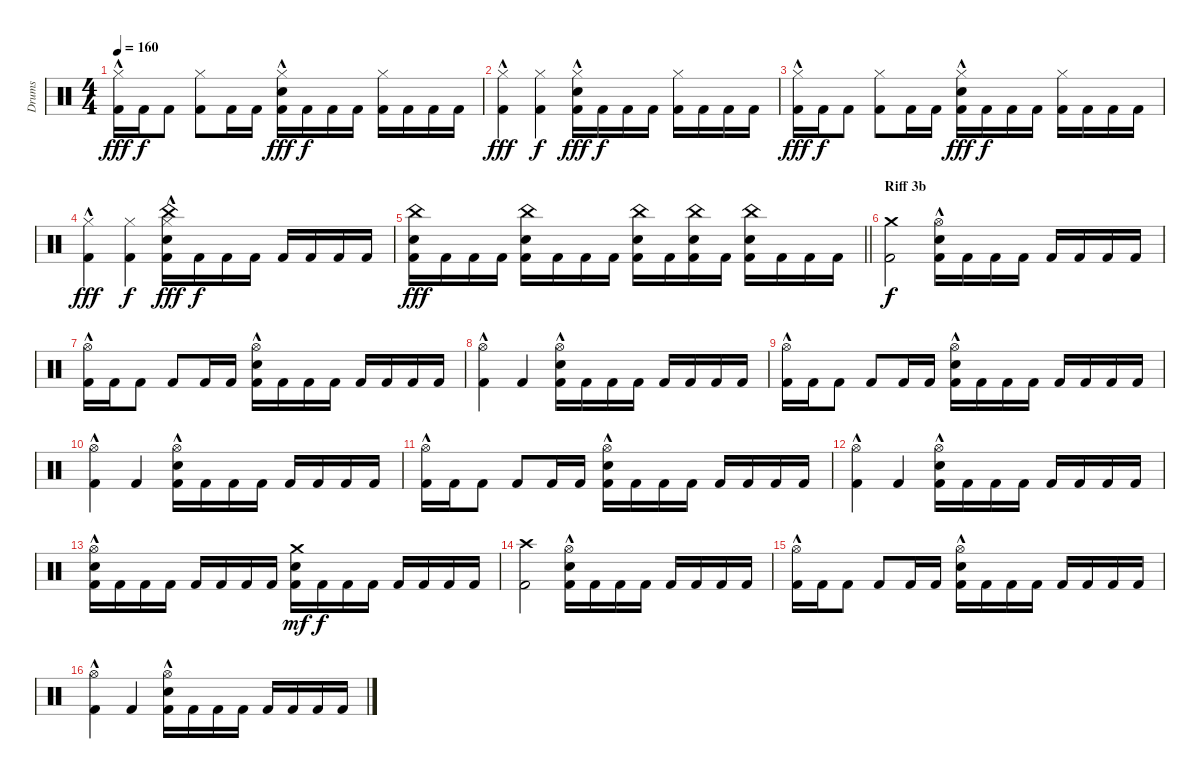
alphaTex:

\track ("Drums" "Drums") {instrument percussion}
\staff {score}
\articulation defaults
\ts (4 4)
\tempo 160
\clef neutral
\ks c
("Hi-Hat (closed)"{hac} "Kick (hit) 2").16{dy fff} "Kick (hit) 2".16{dy f} "Kick (hit) 2".8 ("Hi-Hat (closed)" "Kick (hit) 2").8 "Kick (hit) 2".16 "Kick (hit) 2".16 ("Hi-Hat (closed)"{hac} "Snare (hit) 2" "Kick (hit) 2").16{dy fff} "Kick (hit) 2".16{dy f} "Kick (hit) 2".16 "Kick (hit) 2".16 ("Hi-Hat (closed)" "Kick (hit) 2").16 "Kick (hit) 2".16 "Kick (hit) 2".16 "Kick (hit) 2".16 |
("Hi-Hat (closed)"{hac} "Kick (hit) 2").4{dy fff} ("Hi-Hat (closed)" "Kick (hit) 2").4{dy f} ("Hi-Hat (closed)"{hac} "Snare (hit) 2" "Kick (hit) 2").16{dy fff} "Kick (hit) 2".16{dy f} "Kick (hit) 2".16 "Kick (hit) 2".16 ("Hi-Hat (closed)" "Kick (hit) 2").16 "Kick (hit) 2".16 "Kick (hit) 2".16 "Kick (hit) 2".16 |
("Hi-Hat (closed)"{hac} "Kick (hit) 2").16{dy fff} "Kick (hit) 2".16{dy f} "Kick (hit) 2".8 ("Hi-Hat (closed)" "Kick (hit) 2").8 "Kick (hit) 2".16 "Kick (hit) 2".16 ("Hi-Hat (closed)"{hac} "Snare (hit) 2" "Kick (hit) 2").16{dy fff} "Kick (hit) 2".16{dy f} "Kick (hit) 2".16 "Kick (hit) 2".16 ("Hi-Hat (closed)" "Kick (hit) 2").16 "Kick (hit) 2".16 "Kick (hit) 2".16 "Kick (hit) 2".16 |
("Hi-Hat (closed)"{hac} "Kick (hit) 2").4{dy fff} ("Hi-Hat (closed)" "Kick (hit) 2").4{dy f} ("China (hit)" "Hi-Hat (closed)"{hac} "Snare (hit) 2"{hac} "Kick (hit) 2").16{dy fff} "Kick (hit) 2".16{dy f} "Kick (hit) 2".16 "Kick (hit) 2".16 "Kick (hit) 2".16 "Kick (hit) 2".16 "Kick (hit) 2".16 "Kick (hit) 2".16 |
\barLineRight lightlight
("China (hit)" "Snare (hit) 2" "Kick (hit) 2").16{dy fff} "Kick (hit) 2".16 "Kick (hit) 2".16 "Kick (hit) 2".16 ("China (hit)" "Snare (hit) 2" "Kick (hit) 2").16 "Kick (hit) 2".16 "Kick (hit) 2".16 "Kick (hit) 2".16 ("China (hit)" "Snare (hit) 2" "Kick (hit) 2").16 "Kick (hit) 2".16 ("China (hit)" "Snare (hit) 2" "Kick (hit) 2").16 "Kick (hit) 2".16 ("China (hit)" "Snare (hit) 2" "Kick (hit) 2").16 "Kick (hit) 2".16 "Kick (hit) 2".16 "Kick (hit) 2".16 |
\section ("" "Riff 3b")
("Crash medium (hit)" "Kick (hit) 2").2{dy f} ("Hi-Hat (open)"{hac} "Snare (hit) 2" "Kick (hit) 2").16 "Kick (hit) 2".16 "Kick (hit) 2".16 "Kick (hit) 2".16 "Kick (hit) 2".16 "Kick (hit) 2".16 "Kick (hit) 2".16 "Kick (hit) 2".16 |
("Hi-Hat (open)"{hac} "Kick (hit) 2").16 "Kick (hit) 2".16 "Kick (hit) 2".8 "Kick (hit) 2".8 "Kick (hit) 2".16 "Kick (hit) 2".16 ("Hi-Hat (open)"{hac} "Snare (hit) 2" "Kick (hit) 2").16 "Kick (hit) 2".16 "Kick (hit) 2".16 "Kick (hit) 2".16 "Kick (hit) 2".16 "Kick (hit) 2".16 "Kick (hit) 2".16 "Kick (hit) 2".16 |
("Hi-Hat (open)"{hac} "Kick (hit) 2").4 "Kick (hit) 2".4 ("Hi-Hat (open)"{hac} "Snare (hit) 2" "Kick (hit) 2").16 "Kick (hit) 2".16 "Kick (hit) 2".16 "Kick (hit) 2".16 "Kick (hit) 2".16 "Kick (hit) 2".16 "Kick (hit) 2".16 "Kick (hit) 2".16 |
("Hi-Hat (open)"{hac} "Kick (hit) 2").16 "Kick (hit) 2".16 "Kick (hit) 2".8 "Kick (hit) 2".8 "Kick (hit) 2".16 "Kick (hit) 2".16 ("Hi-Hat (open)"{hac} "Snare (hit) 2" "Kick (hit) 2").16 "Kick (hit) 2".16 "Kick (hit) 2".16 "Kick (hit) 2".16 "Kick (hit) 2".16 "Kick (hit) 2".16 "Kick (hit) 2".16 "Kick (hit) 2".16 |
("Hi-Hat (open)"{hac} "Kick (hit) 2").4 "Kick (hit) 2".4 ("Hi-Hat (open)"{hac} "Snare (hit) 2" "Kick (hit) 2").16 "Kick (hit) 2".16 "Kick (hit) 2".16 "Kick (hit) 2".16 "Kick (hit) 2".16 "Kick (hit) 2".16 "Kick (hit) 2".16 "Kick (hit) 2".16 |
("Hi-Hat (open)"{hac} "Kick (hit) 2").16 "Kick (hit) 2".16 "Kick (hit) 2".8 "Kick (hit) 2".8 "Kick (hit) 2".16 "Kick (hit) 2".16 ("Hi-Hat (open)"{hac} "Snare (hit) 2" "Kick (hit) 2").16 "Kick (hit) 2".16 "Kick (hit) 2".16 "Kick (hit) 2".16 "Kick (hit) 2".16 "Kick (hit) 2".16 "Kick (hit) 2".16 "Kick (hit) 2".16 |
("Hi-Hat (open)"{hac} "Kick (hit) 2").4 "Kick (hit) 2".4 ("Hi-Hat (open)"{hac} "Snare (hit) 2" "Kick (hit) 2").16 "Kick (hit) 2".16 "Kick (hit) 2".16 "Kick (hit) 2".16 "Kick (hit) 2".16 "Kick (hit) 2".16 "Kick (hit) 2".16 "Kick (hit) 2".16 |
("Hi-Hat (open)"{hac} "Snare (hit) 2" "Kick (hit) 2").16 "Kick (hit) 2".16 "Kick (hit) 2".16 "Kick (hit) 2".16 "Kick (hit) 2".16 "Kick (hit) 2".16 "Kick (hit) 2".16 "Kick (hit) 2".16 ("Crash medium (hit)" "Snare (hit) 2" "Kick (hit) 2").16{dy mf} "Kick (hit) 2".16{dy f} "Kick (hit) 2".16 "Kick (hit) 2".16 "Kick (hit) 2".16 "Kick (hit) 2".16 "Kick (hit) 2".16 "Kick (hit) 2".16 |
("Crash high (hit)" "Kick (hit) 2").2 ("Hi-Hat (open)"{hac} "Snare (hit) 2" "Kick (hit) 2").16 "Kick (hit) 2".16 "Kick (hit) 2".16 "Kick (hit) 2".16 "Kick (hit) 2".16 "Kick (hit) 2".16 "Kick (hit) 2".16 "Kick (hit) 2".16 |
("Hi-Hat (open)"{hac} "Kick (hit) 2").16 "Kick (hit) 2".16 "Kick (hit) 2".8 "Kick (hit) 2".8 "Kick (hit) 2".16 "Kick (hit) 2".16 ("Hi-Hat (open)"{hac} "Snare (hit) 2" "Kick (hit) 2").16 "Kick (hit) 2".16 "Kick (hit) 2".16 "Kick (hit) 2".16 "Kick (hit) 2".16 "Kick (hit) 2".16 "Kick (hit) 2".16 "Kick (hit) 2".16 |
("Hi-Hat (open)"{hac} "Kick (hit) 2").4 "Kick (hit) 2".4 ("Hi-Hat (open)"{hac} "Snare (hit) 2" "Kick (hit) 2").16 "Kick (hit) 2".16 "Kick (hit) 2".16 "Kick (hit) 2".16 "Kick (hit) 2".16 "Kick (hit) 2".16 "Kick (hit) 2".16 "Kick (hit) 2".16
